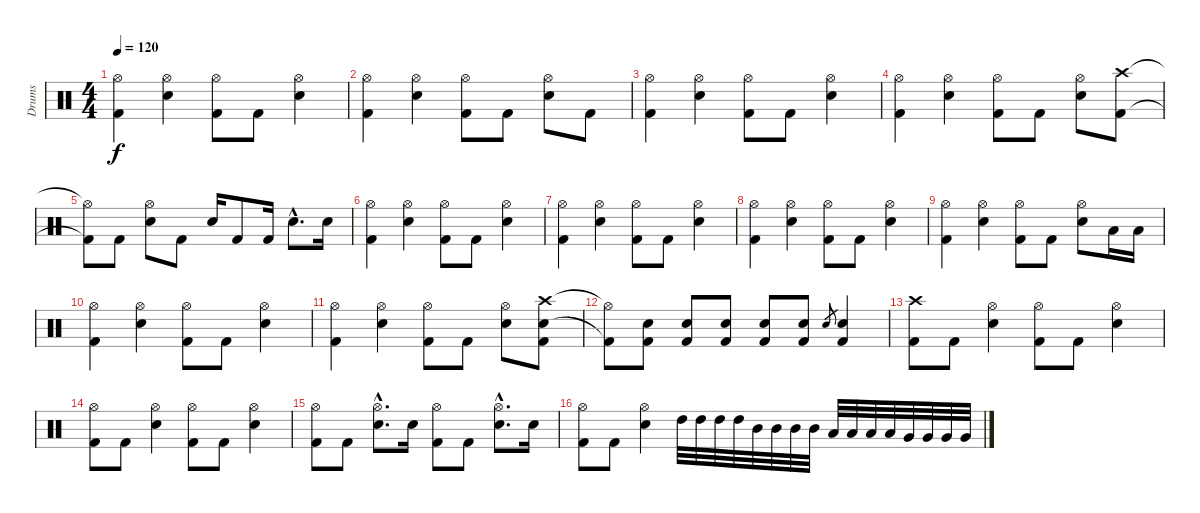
\track ("Drums" "Drums") {instrument percussion}
\staff {score}
\articulation defaults
\ts (4 4)
\tempo 120
\clef neutral
\ks c
("Hi-Hat (open)" "Kick (hit) 2").4{dy f} ("Hi-Hat (open)" "Electric Snare (hit)").4 ("Hi-Hat (open)" "Kick (hit) 2").8 "Kick (hit) 2".8 ("Hi-Hat (open)" "Electric Snare (hit)").4 |
("Hi-Hat (open)" "Kick (hit) 2").4 ("Hi-Hat (open)" "Electric Snare (hit)").4 ("Hi-Hat (open)" "Kick (hit) 2").8 "Kick (hit) 2".8 ("Hi-Hat (open)" "Electric Snare (hit)").8 "Kick (hit) 2".8 |
("Hi-Hat (open)" "Kick (hit) 2").4 ("Hi-Hat (open)" "Electric Snare (hit)").4 ("Hi-Hat (open)" "Kick (hit) 2").8 "Kick (hit) 2".8 ("Hi-Hat (open)" "Electric Snare (hit)").4 |
("Hi-Hat (open)" "Kick (hit) 2").4 ("Hi-Hat (open)" "Electric Snare (hit)").4 ("Hi-Hat (open)" "Kick (hit) 2").8 "Kick (hit) 2".8 ("Hi-Hat (open)" "Electric Snare (hit)").8 ("Crash high (hit)" "Kick (hit) 2").8 |
("Hi-Hat (open)"{t} "Kick (hit) 2"{t}).8 "Kick (hit) 2".8 ("Hi-Hat (open)" "Electric Snare (hit)").8 "Kick (hit) 2".8 "Electric Snare (hit)".16 "Kick (hit) 2".8 "Kick (hit) 2".16 "Electric Snare (hit)"{hac}.8{d} "Electric Snare (hit)".16 |
("Hi-Hat (open)" "Kick (hit) 2").4 ("Hi-Hat (open)" "Electric Snare (hit)").4 ("Hi-Hat (open)" "Kick (hit) 2").8 "Kick (hit) 2".8 ("Hi-Hat (open)" "Electric Snare (hit)").4 |
("Hi-Hat (open)" "Kick (hit) 2").4 ("Hi-Hat (open)" "Electric Snare (hit)").4 ("Hi-Hat (open)" "Kick (hit) 2").8 "Kick (hit) 2".8 ("Hi-Hat (open)" "Electric Snare (hit)").4 |
("Hi-Hat (open)" "Kick (hit) 2").4 ("Hi-Hat (open)" "Electric Snare (hit)").4 ("Hi-Hat (open)" "Kick (hit) 2").8 "Kick (hit) 2".8 ("Hi-Hat (open)" "Electric Snare (hit)").4 |
("Hi-Hat (open)" "Kick (hit) 2").4 ("Hi-Hat (open)" "Electric Snare (hit)").4 ("Hi-Hat (open)" "Kick (hit) 2").8 "Kick (hit) 2".8 ("Hi-Hat (open)" "Electric Snare (hit)").8 "Low Floor Tom (hit)".16 "Low Floor Tom (hit)".16 |
("Hi-Hat (open)" "Kick (hit) 2").4 ("Hi-Hat (open)" "Electric Snare (hit)").4 ("Hi-Hat (open)" "Kick (hit) 2").8 "Kick (hit) 2".8 ("Hi-Hat (open)" "Electric Snare (hit)").4 |
("Hi-Hat (open)" "Kick (hit) 2").4 ("Hi-Hat (open)" "Electric Snare (hit)").4 ("Hi-Hat (open)" "Kick (hit) 2").8 "Kick (hit) 2".8 ("Hi-Hat (open)" "Electric Snare (hit)").8 ("Crash high (hit)" "Electric Snare (hit)" "Kick (hit) 2").8 |
("Hi-Hat (open)"{t} "Kick (hit) 2"{t}).8 ("Electric Snare (hit)" "Kick (hit) 2").8 ("Electric Snare (hit)" "Kick (hit) 2").8 ("Electric Snare (hit)" "Kick (hit) 2").8 ("Electric Snare (hit)" "Kick (hit) 2").8 ("Electric Snare (hit)" "Kick (hit) 2").8 "Electric Snare (hit)".8{gr} ("Electric Snare (hit)" "Kick (hit) 2").4 |
("Crash high (hit)" "Kick (hit) 2").8 "Kick (hit) 2".8 ("Hi-Hat (open)" "Electric Snare (hit)").4 ("Hi-Hat (open)" "Kick (hit) 2").8 "Kick (hit) 2".8 ("Hi-Hat (open)" "Electric Snare (hit)").4 |
("Hi-Hat (open)" "Kick (hit) 2").8 "Kick (hit) 2".8 ("Hi-Hat (open)" "Electric Snare (hit)").4 ("Hi-Hat (open)" "Kick (hit) 2").8 "Kick (hit) 2".8 ("Hi-Hat (open)" "Electric Snare (hit)").4 |
("Hi-Hat (open)" "Kick (hit) 2").8 "Kick (hit) 2".8 ("Hi-Hat (open)"{hac} "Electric Snare (hit)"{hac}).8{d} "Electric Snare (hit)".16 ("Hi-Hat (open)" "Kick (hit) 2").8 "Kick (hit) 2".8 ("Hi-Hat (open)"{hac} "Electric Snare (hit)"{hac}).8{d} "Electric Snare (hit)".16 |
("Hi-Hat (open)" "Kick (hit) 2").8 "Kick (hit) 2".8 ("Hi-Hat (open)" "Electric Snare (hit)").4 "High Tom (hit)".32 "High Tom (hit)".32 "High Tom (hit)".32 "High Tom (hit)".32 "Mid Tom (hit)".32 "Mid Tom (hit)".32 "Mid Tom (hit)".32 "Mid Tom (hit)".32 "Low Tom (hit)".32 "Low Tom (hit)".32 "Low Tom (hit)".32 "Low Tom (hit)".32 "Very Low Tom (hit)".32 "Very Low Tom (hit)".32 "Very Low Tom (hit)".32 "Very Low Tom (hit)".32
